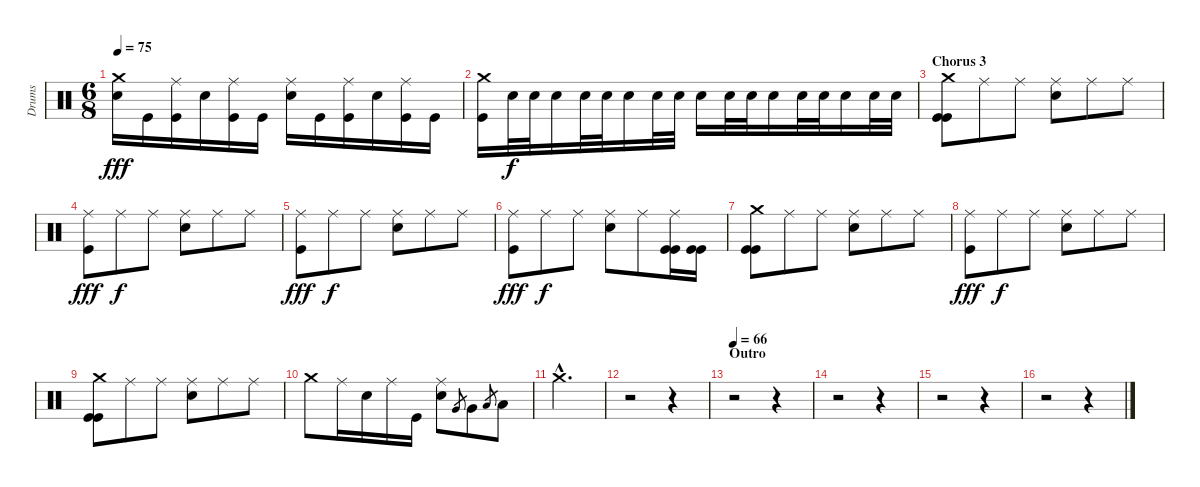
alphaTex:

\track ("Drums" "Drums") {instrument percussion}
\staff {score}
\articulation defaults
\ts (6 8)
\tempo 75
\clef neutral
\ks c
("Crash medium (hit)" "Electric Snare (hit)").16{dy fff} "Kick (hit)".16 ("Ride (middle)" "Kick (hit)").16 "Electric Snare (hit)".16 ("Ride (middle)" "Kick (hit)").16 "Kick (hit)".16 ("Ride (middle)" "Electric Snare (hit)").16 "Kick (hit)".16 ("Ride (middle)" "Kick (hit)").16 "Electric Snare (hit)".16 ("Ride (middle)" "Kick (hit)").16 "Kick (hit)".16 |
("Crash medium (hit)" "Kick (hit)").16 "Electric Snare (hit)".32{dy f} "Electric Snare (hit)".32 "Electric Snare (hit)".16 "Electric Snare (hit)".32 "Electric Snare (hit)".32 "Electric Snare (hit)".16 "Electric Snare (hit)".32 "Electric Snare (hit)".32 "Electric Snare (hit)".16 "Electric Snare (hit)".32 "Electric Snare (hit)".32 "Electric Snare (hit)".16 "Electric Snare (hit)".32 "Electric Snare (hit)".32 "Electric Snare (hit)".16 "Electric Snare (hit)".32 "Electric Snare (hit)".32 |
\section ("" "Chorus 3")
("Crash medium (hit)" "Kick (hit)" "Kick (hit)").8 "Ride (middle)".8 "Ride (middle)".8 ("Ride (middle)" "Snare (hit) 2").8 "Ride (middle)".8 "Ride (middle)".8 |
("Ride (middle)" "Kick (hit)").8{dy fff} "Ride (middle)".8{dy f} "Ride (middle)".8 ("Ride (middle)" "Snare (hit) 2").8 "Ride (middle)".8 "Ride (middle)".8 |
("Ride (middle)" "Kick (hit)").8{dy fff} "Ride (middle)".8{dy f} "Ride (middle)".8 ("Ride (middle)" "Snare (hit) 2").8 "Ride (middle)".8 "Ride (middle)".8 |
("Ride (middle)" "Kick (hit)").8{dy fff} "Ride (middle)".8{dy f} "Ride (middle)".8 ("Ride (middle)" "Snare (hit) 2").8 "Ride (middle)".8 ("Ride (middle)" "Kick (hit)" "Kick (hit)").16 ("Kick (hit)" "Kick (hit)").16 |
("Crash medium (hit)" "Kick (hit)" "Kick (hit)").8 "Ride (middle)".8 "Ride (middle)".8 ("Ride (middle)" "Snare (hit) 2").8 "Ride (middle)".8 "Ride (middle)".8 |
("Ride (middle)" "Kick (hit)").8{dy fff} "Ride (middle)".8{dy f} "Ride (middle)".8 ("Ride (middle)" "Snare (hit) 2").8 "Ride (middle)".8 "Ride (middle)".8 |
("Crash medium (hit)" "Kick (hit)" "Kick (hit)").8 "Ride (middle)".8 "Ride (middle)".8 ("Ride (middle)" "Snare (hit) 2").8 "Ride (middle)".8 "Ride (middle)".8 |
"Crash medium (hit)".8 "Ride (middle)".16 "Snare (hit) 2".16 "Ride (middle)".16 "Kick (hit)".16 ("Ride (middle)" "Snare (hit) 2").8 "Very Low Tom (hit)".8{gr} "Very Low Tom (hit)".8 "Low Floor Tom (hit)".8{gr} "Low Floor Tom (hit)".8 |
"Crash medium (hit)"{hac}.2{d} |
r.2 r.4 |
\section ("" "Outro")
\tempo 66
r.2 r.4 |
r.2 r.4 |
r.2 r.4 |
r.2 r.4
